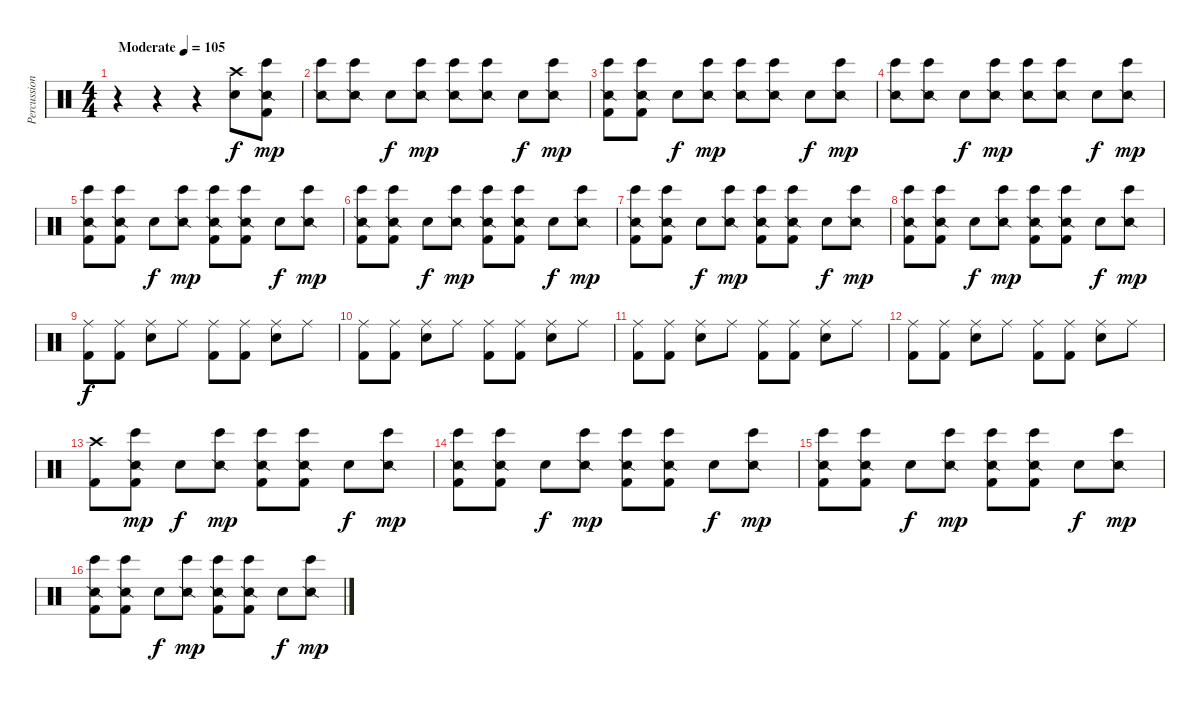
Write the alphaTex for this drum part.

\track ("Percussioni" "Percussion") {instrument percussion}
\staff {score}
\articulation defaults
\ts (4 4)
\tempo (105 "Moderate")
\clef neutral
\ks c
r.4{dy f} r.4 r.4 ("Crash high (hit)" "Snare (hit) 2").8 ("Bongo High (hit)" "Snare (side stick) 2" "Kick (hit) 2").8{dy mp} |
("Bongo High (hit)" "Snare (side stick) 2").8 ("Bongo High (hit)" "Snare (side stick) 2").8 "Snare (hit) 2".8{dy f} ("Bongo High (hit)" "Snare (side stick) 2").8{dy mp} ("Bongo High (hit)" "Snare (side stick) 2").8 ("Bongo High (hit)" "Snare (side stick) 2").8 "Snare (hit) 2".8{dy f} ("Bongo High (hit)" "Snare (side stick) 2").8{dy mp} |
("Bongo High (hit)" "Snare (side stick) 2" "Kick (hit) 2").8 ("Bongo High (hit)" "Snare (side stick) 2" "Kick (hit) 2").8 "Snare (hit) 2".8{dy f} ("Bongo High (hit)" "Snare (side stick) 2").8{dy mp} ("Bongo High (hit)" "Snare (side stick) 2").8 ("Bongo High (hit)" "Snare (side stick) 2").8 "Snare (hit) 2".8{dy f} ("Bongo High (hit)" "Snare (side stick) 2").8{dy mp} |
("Bongo High (hit)" "Snare (side stick) 2").8 ("Bongo High (hit)" "Snare (side stick) 2").8 "Snare (hit) 2".8{dy f} ("Bongo High (hit)" "Snare (side stick) 2").8{dy mp} ("Bongo High (hit)" "Snare (side stick) 2").8 ("Bongo High (hit)" "Snare (side stick) 2").8 "Snare (hit) 2".8{dy f} ("Bongo High (hit)" "Snare (side stick) 2").8{dy mp} |
("Bongo High (hit)" "Snare (side stick) 2" "Kick (hit) 2").8 ("Bongo High (hit)" "Snare (side stick) 2" "Kick (hit) 2").8 "Snare (hit) 2".8{dy f} ("Bongo High (hit)" "Snare (side stick) 2").8{dy mp} ("Bongo High (hit)" "Snare (side stick) 2" "Kick (hit) 2").8 ("Bongo High (hit)" "Snare (side stick) 2" "Kick (hit) 2").8 "Snare (hit) 2".8{dy f} ("Bongo High (hit)" "Snare (side stick) 2").8{dy mp} |
("Bongo High (hit)" "Snare (side stick) 2" "Kick (hit) 2").8 ("Bongo High (hit)" "Snare (side stick) 2" "Kick (hit) 2").8 "Snare (hit) 2".8{dy f} ("Bongo High (hit)" "Snare (side stick) 2").8{dy mp} ("Bongo High (hit)" "Snare (side stick) 2" "Kick (hit) 2").8 ("Bongo High (hit)" "Snare (side stick) 2" "Kick (hit) 2").8 "Snare (hit) 2".8{dy f} ("Bongo High (hit)" "Snare (side stick) 2").8{dy mp} |
("Bongo High (hit)" "Snare (side stick) 2" "Kick (hit) 2").8 ("Bongo High (hit)" "Snare (side stick) 2" "Kick (hit) 2").8 "Snare (hit) 2".8{dy f} ("Bongo High (hit)" "Snare (side stick) 2").8{dy mp} ("Bongo High (hit)" "Snare (side stick) 2" "Kick (hit) 2").8 ("Bongo High (hit)" "Snare (side stick) 2" "Kick (hit) 2").8 "Snare (hit) 2".8{dy f} ("Bongo High (hit)" "Snare (side stick) 2").8{dy mp} |
("Bongo High (hit)" "Snare (side stick) 2" "Kick (hit) 2").8 ("Bongo High (hit)" "Snare (side stick) 2" "Kick (hit) 2").8 "Snare (hit) 2".8{dy f} ("Bongo High (hit)" "Snare (side stick) 2").8{dy mp} ("Bongo High (hit)" "Snare (side stick) 2" "Kick (hit) 2").8 ("Bongo High (hit)" "Snare (side stick) 2" "Kick (hit) 2").8 "Snare (hit) 2".8{dy f} ("Bongo High (hit)" "Snare (side stick) 2").8{dy mp} |
("Ride (middle)" "Kick (hit) 2").8{dy f} ("Ride (middle)" "Kick (hit) 2").8 ("Ride (middle)" "Snare (hit) 2").8 "Ride (middle)".8 ("Ride (middle)" "Kick (hit) 2").8 ("Ride (middle)" "Kick (hit) 2").8 ("Ride (middle)" "Snare (hit) 2").8 "Ride (middle)".8 |
("Ride (middle)" "Kick (hit) 2").8 ("Ride (middle)" "Kick (hit) 2").8 ("Ride (middle)" "Snare (hit) 2").8 "Ride (middle)".8 ("Ride (middle)" "Kick (hit) 2").8 ("Ride (middle)" "Kick (hit) 2").8 ("Ride (middle)" "Snare (hit) 2").8 "Ride (middle)".8 |
("Ride (middle)" "Kick (hit) 2").8 ("Ride (middle)" "Kick (hit) 2").8 ("Ride (middle)" "Snare (hit) 2").8 "Ride (middle)".8 ("Ride (middle)" "Kick (hit) 2").8 ("Ride (middle)" "Kick (hit) 2").8 ("Ride (middle)" "Snare (hit) 2").8 "Ride (middle)".8 |
("Ride (middle)" "Kick (hit) 2").8 ("Ride (middle)" "Kick (hit) 2").8 ("Ride (middle)" "Snare (hit) 2").8 "Ride (middle)".8 ("Ride (middle)" "Kick (hit) 2").8 ("Ride (middle)" "Kick (hit) 2").8 ("Ride (middle)" "Snare (hit) 2").8 "Ride (middle)".8 |
("Crash high (hit)" "Kick (hit) 2").8 ("Bongo High (hit)" "Snare (side stick) 2" "Kick (hit) 2").8{dy mp} "Snare (hit) 2".8{dy f} ("Bongo High (hit)" "Snare (side stick) 2").8{dy mp} ("Bongo High (hit)" "Snare (side stick) 2" "Kick (hit) 2").8 ("Bongo High (hit)" "Snare (side stick) 2" "Kick (hit) 2").8 "Snare (hit) 2".8{dy f} ("Bongo High (hit)" "Snare (side stick) 2").8{dy mp} |
("Bongo High (hit)" "Snare (side stick) 2" "Kick (hit) 2").8 ("Bongo High (hit)" "Snare (side stick) 2" "Kick (hit) 2").8 "Snare (hit) 2".8{dy f} ("Bongo High (hit)" "Snare (side stick) 2").8{dy mp} ("Bongo High (hit)" "Snare (side stick) 2" "Kick (hit) 2").8 ("Bongo High (hit)" "Snare (side stick) 2" "Kick (hit) 2").8 "Snare (hit) 2".8{dy f} ("Bongo High (hit)" "Snare (side stick) 2").8{dy mp} |
("Bongo High (hit)" "Snare (side stick) 2" "Kick (hit) 2").8 ("Bongo High (hit)" "Snare (side stick) 2" "Kick (hit) 2").8 "Snare (hit) 2".8{dy f} ("Bongo High (hit)" "Snare (side stick) 2").8{dy mp} ("Bongo High (hit)" "Snare (side stick) 2" "Kick (hit) 2").8 ("Bongo High (hit)" "Snare (side stick) 2" "Kick (hit) 2").8 "Snare (hit) 2".8{dy f} ("Bongo High (hit)" "Snare (side stick) 2").8{dy mp} |
("Bongo High (hit)" "Snare (side stick) 2" "Kick (hit) 2").8 ("Bongo High (hit)" "Snare (side stick) 2" "Kick (hit) 2").8 "Snare (hit) 2".8{dy f} ("Bongo High (hit)" "Snare (side stick) 2").8{dy mp} ("Bongo High (hit)" "Snare (side stick) 2" "Kick (hit) 2").8 ("Bongo High (hit)" "Snare (side stick) 2" "Kick (hit) 2").8 "Snare (hit) 2".8{dy f} ("Bongo High (hit)" "Snare (side stick) 2").8{dy mp}
